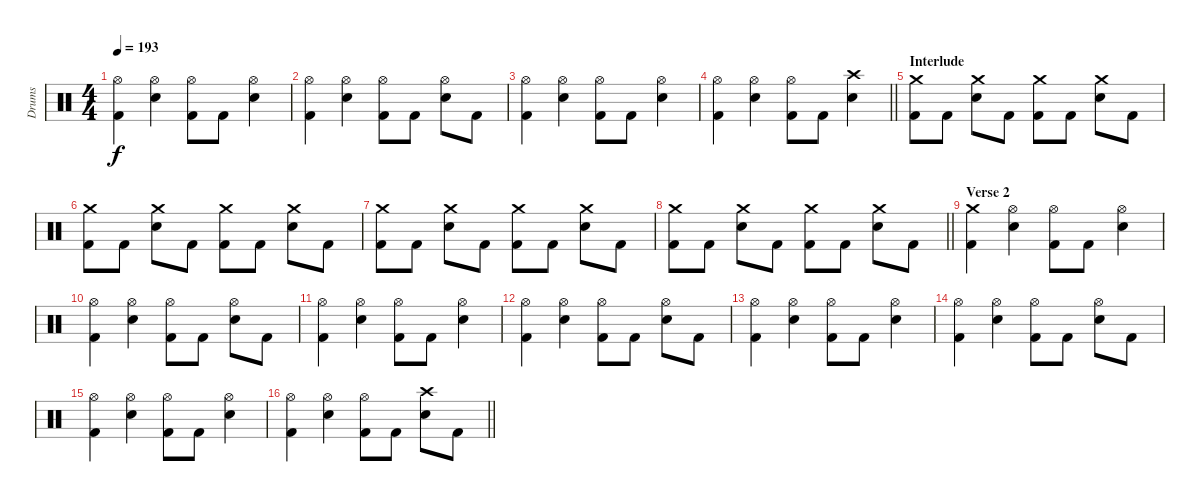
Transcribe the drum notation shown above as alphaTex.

\track ("Drums" "Drums") {instrument percussion}
\staff {score}
\articulation defaults
\ts (4 4)
\tempo 193
\clef neutral
\ks c
("Hi-Hat (open)" "Kick (hit) 2").4{dy f} ("Hi-Hat (open)" "Electric Snare (hit)").4 ("Hi-Hat (open)" "Kick (hit) 2").8 "Kick (hit) 2".8 ("Hi-Hat (open)" "Electric Snare (hit)").4 |
("Hi-Hat (open)" "Kick (hit) 2").4 ("Hi-Hat (open)" "Electric Snare (hit)").4 ("Hi-Hat (open)" "Kick (hit) 2").8 "Kick (hit) 2".8 ("Hi-Hat (open)" "Electric Snare (hit)").8 "Kick (hit) 2".8 |
("Hi-Hat (open)" "Kick (hit) 2").4 ("Hi-Hat (open)" "Electric Snare (hit)").4 ("Hi-Hat (open)" "Kick (hit) 2").8 "Kick (hit) 2".8 ("Hi-Hat (open)" "Electric Snare (hit)").4 |
\barLineRight lightlight
("Hi-Hat (open)" "Kick (hit) 2").4 ("Hi-Hat (open)" "Electric Snare (hit)").4 ("Hi-Hat (open)" "Kick (hit) 2").8 "Kick (hit) 2".8 ("Crash high (hit)" "Electric Snare (hit)").4 |
\section ("" "Interlude")
("Crash medium (hit)" "Kick (hit) 2").8 "Kick (hit) 2".8 ("Crash medium (hit)" "Electric Snare (hit)").8 "Kick (hit) 2".8 ("Crash medium (hit)" "Kick (hit) 2").8 "Kick (hit) 2".8 ("Crash medium (hit)" "Electric Snare (hit)").8 "Kick (hit) 2".8 |
("Crash medium (hit)" "Kick (hit) 2").8 "Kick (hit) 2".8 ("Crash medium (hit)" "Electric Snare (hit)").8 "Kick (hit) 2".8 ("Crash medium (hit)" "Kick (hit) 2").8 "Kick (hit) 2".8 ("Crash medium (hit)" "Electric Snare (hit)").8 "Kick (hit) 2".8 |
("Crash medium (hit)" "Kick (hit) 2").8 "Kick (hit) 2".8 ("Crash medium (hit)" "Electric Snare (hit)").8 "Kick (hit) 2".8 ("Crash medium (hit)" "Kick (hit) 2").8 "Kick (hit) 2".8 ("Crash medium (hit)" "Electric Snare (hit)").8 "Kick (hit) 2".8 |
\barLineRight lightlight
("Crash medium (hit)" "Kick (hit) 2").8 "Kick (hit) 2".8 ("Crash medium (hit)" "Electric Snare (hit)").8 "Kick (hit) 2".8 ("Crash medium (hit)" "Kick (hit) 2").8 "Kick (hit) 2".8 ("Crash medium (hit)" "Electric Snare (hit)").8 "Kick (hit) 2".8 |
\section ("" "Verse 2")
("Crash medium (hit)" "Kick (hit) 2").4 ("Hi-Hat (open)" "Electric Snare (hit)").4 ("Hi-Hat (open)" "Kick (hit) 2").8 "Kick (hit) 2".8 ("Hi-Hat (open)" "Electric Snare (hit)").4 |
("Hi-Hat (open)" "Kick (hit) 2").4 ("Hi-Hat (open)" "Electric Snare (hit)").4 ("Hi-Hat (open)" "Kick (hit) 2").8 "Kick (hit) 2".8 ("Hi-Hat (open)" "Electric Snare (hit)").8 "Kick (hit) 2".8 |
("Hi-Hat (open)" "Kick (hit) 2").4 ("Hi-Hat (open)" "Electric Snare (hit)").4 ("Hi-Hat (open)" "Kick (hit) 2").8 "Kick (hit) 2".8 ("Hi-Hat (open)" "Electric Snare (hit)").4 |
("Hi-Hat (open)" "Kick (hit) 2").4 ("Hi-Hat (open)" "Electric Snare (hit)").4 ("Hi-Hat (open)" "Kick (hit) 2").8 "Kick (hit) 2".8 ("Hi-Hat (open)" "Electric Snare (hit)").8 "Kick (hit) 2".8 |
("Hi-Hat (open)" "Kick (hit) 2").4 ("Hi-Hat (open)" "Electric Snare (hit)").4 ("Hi-Hat (open)" "Kick (hit) 2").8 "Kick (hit) 2".8 ("Hi-Hat (open)" "Electric Snare (hit)").4 |
("Hi-Hat (open)" "Kick (hit) 2").4 ("Hi-Hat (open)" "Electric Snare (hit)").4 ("Hi-Hat (open)" "Kick (hit) 2").8 "Kick (hit) 2".8 ("Hi-Hat (open)" "Electric Snare (hit)").8 "Kick (hit) 2".8 |
("Hi-Hat (open)" "Kick (hit) 2").4 ("Hi-Hat (open)" "Electric Snare (hit)").4 ("Hi-Hat (open)" "Kick (hit) 2").8 "Kick (hit) 2".8 ("Hi-Hat (open)" "Electric Snare (hit)").4 |
\barLineRight lightlight
("Hi-Hat (open)" "Kick (hit) 2").4 ("Hi-Hat (open)" "Electric Snare (hit)").4 ("Hi-Hat (open)" "Kick (hit) 2").8 "Kick (hit) 2".8 ("Crash high (hit)" "Electric Snare (hit)").8 "Kick (hit) 2".8
